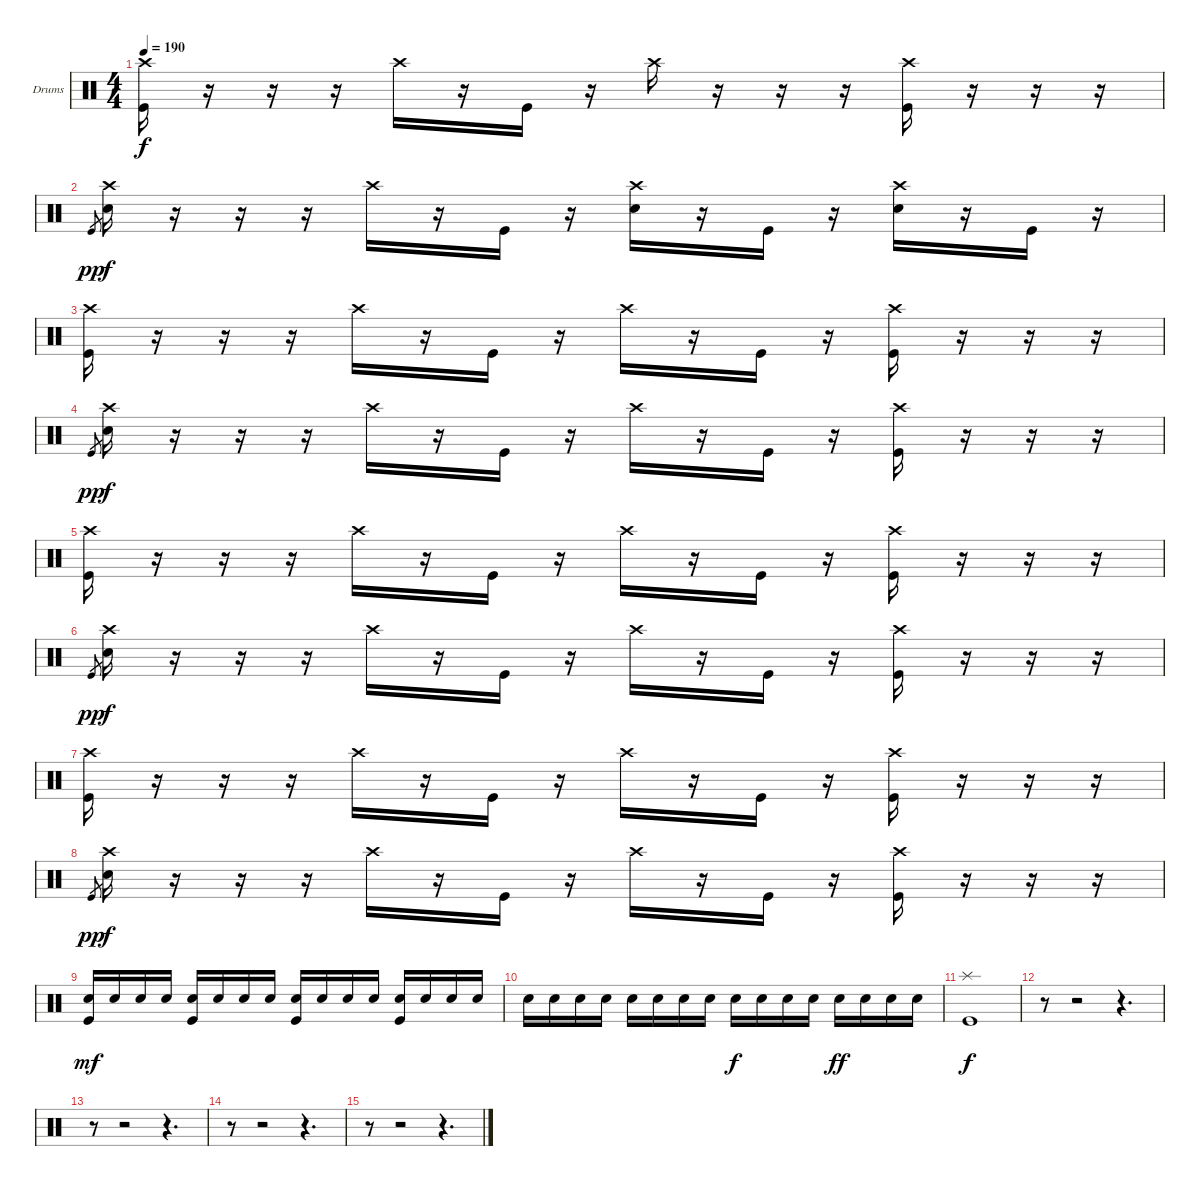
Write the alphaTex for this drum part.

\bracketExtendMode groupsimilarinstruments
\firstSystemTrackNameOrientation horizontal
\otherSystemsTrackNameOrientation horizontal
\track ("Drumkit" "Drums") {instrument percussion}
\staff {score}
\articulation defaults
\ts (4 4)
\tempo 190
\clef neutral
\ks c
("Crash high (hit)" "Kick (hit)").16{dy f} r.16 r.16 r.16 "Crash high (hit)".16 r.16 "Kick (hit)".16 r.16 "Crash high (hit)".16 r.16 r.16 r.16 ("Crash high (hit)" "Kick (hit)").16 r.16 r.16 r.16 |
"Kick (hit)".8{gr dy pp} ("Crash high (hit)" "Snare (hit) 2").16{dy f} r.16 r.16 r.16 "Crash high (hit)".16 r.16 "Kick (hit)".16 r.16 ("Crash high (hit)" "Snare (hit) 2").16 r.16 "Kick (hit)".16 r.16 ("Crash high (hit)" "Snare (hit) 2").16 r.16 "Kick (hit)".16 r.16 |
("Crash high (hit)" "Kick (hit)").16 r.16 r.16 r.16 "Crash high (hit)".16 r.16 "Kick (hit)".16 r.16 "Crash high (hit)".16 r.16 "Kick (hit)".16 r.16 ("Crash high (hit)" "Kick (hit)").16 r.16 r.16 r.16 |
"Kick (hit)".8{gr dy pp} ("Crash high (hit)" "Snare (hit) 2").16{dy f} r.16 r.16 r.16 "Crash high (hit)".16 r.16 "Kick (hit)".16 r.16 "Crash high (hit)".16 r.16 "Kick (hit)".16 r.16 ("Crash high (hit)" "Kick (hit)").16 r.16 r.16 r.16 |
("Crash high (hit)" "Kick (hit)").16 r.16 r.16 r.16 "Crash high (hit)".16 r.16 "Kick (hit)".16 r.16 "Crash high (hit)".16 r.16 "Kick (hit)".16 r.16 ("Crash high (hit)" "Kick (hit)").16 r.16 r.16 r.16 |
"Kick (hit)".8{gr dy pp} ("Crash high (hit)" "Snare (hit) 2").16{dy f} r.16 r.16 r.16 "Crash high (hit)".16 r.16 "Kick (hit)".16 r.16 "Crash high (hit)".16 r.16 "Kick (hit)".16 r.16 ("Crash high (hit)" "Kick (hit)").16 r.16 r.16 r.16 |
("Crash high (hit)" "Kick (hit)").16 r.16 r.16 r.16 "Crash high (hit)".16 r.16 "Kick (hit)".16 r.16 "Crash high (hit)".16 r.16 "Kick (hit)".16 r.16 ("Crash high (hit)" "Kick (hit)").16 r.16 r.16 r.16 |
"Kick (hit)".8{gr dy pp} ("Crash high (hit)" "Snare (hit) 2").16{dy f} r.16 r.16 r.16 "Crash high (hit)".16 r.16 "Kick (hit)".16 r.16 "Crash high (hit)".16 r.16 "Kick (hit)".16 r.16 ("Crash high (hit)" "Kick (hit)").16 r.16 r.16 r.16 |
("Snare (hit) 2" "Kick (hit)").16{dy mf} "Snare (hit) 2".16 "Snare (hit) 2".16 "Snare (hit) 2".16 ("Snare (hit) 2" "Kick (hit)").16 "Snare (hit) 2".16 "Snare (hit) 2".16 "Snare (hit) 2".16 ("Snare (hit) 2" "Kick (hit)").16 "Snare (hit) 2".16 "Snare (hit) 2".16 "Snare (hit) 2".16 ("Snare (hit) 2" "Kick (hit)").16 "Snare (hit) 2".16 "Snare (hit) 2".16 "Snare (hit) 2".16 |
"Snare (hit) 2".16 "Snare (hit) 2".16 "Snare (hit) 2".16 "Snare (hit) 2".16 "Snare (hit) 2".16 "Snare (hit) 2".16 "Snare (hit) 2".16 "Snare (hit) 2".16 "Snare (hit) 2".16{dy f} "Snare (hit) 2".16 "Snare (hit) 2".16 "Snare (hit) 2".16 "Snare (hit) 2".16{dy ff} "Snare (hit) 2".16 "Snare (hit) 2".16 "Snare (hit) 2".16 |
("Splash (hit)" "Kick (hit)").1{dy f} |
r.8 r.2 r.4{d} |
r.8 r.2 r.4{d} |
r.8 r.2 r.4{d} |
r.8 r.2 r.4{d}
